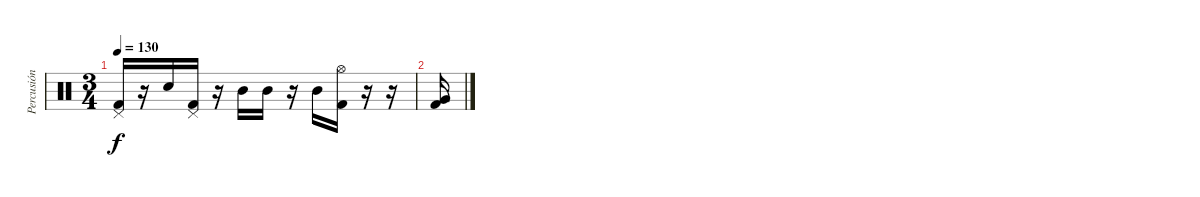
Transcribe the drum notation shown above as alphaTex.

\track ("Percusión" "Percusión") {instrument percussion}
\staff {score}
\articulation defaults
\ts (3 4)
\tempo 130
\clef neutral
\ks c
("Pedal Hi-Hat (hit)" "Kick (hit) 2").16{dy f} r.16 "Electric Snare (hit)".16 ("Pedal Hi-Hat (hit)" "Kick (hit) 2").16 r.16 "Mid Tom (hit)".16 "Mid Tom (hit)".16 r.16 "Mid Tom (hit)".16 ("Hi-Hat (open)" "Kick (hit) 2").16 r.16 r.16 |
("Very Low Tom (hit)" "Kick (hit) 2").16
